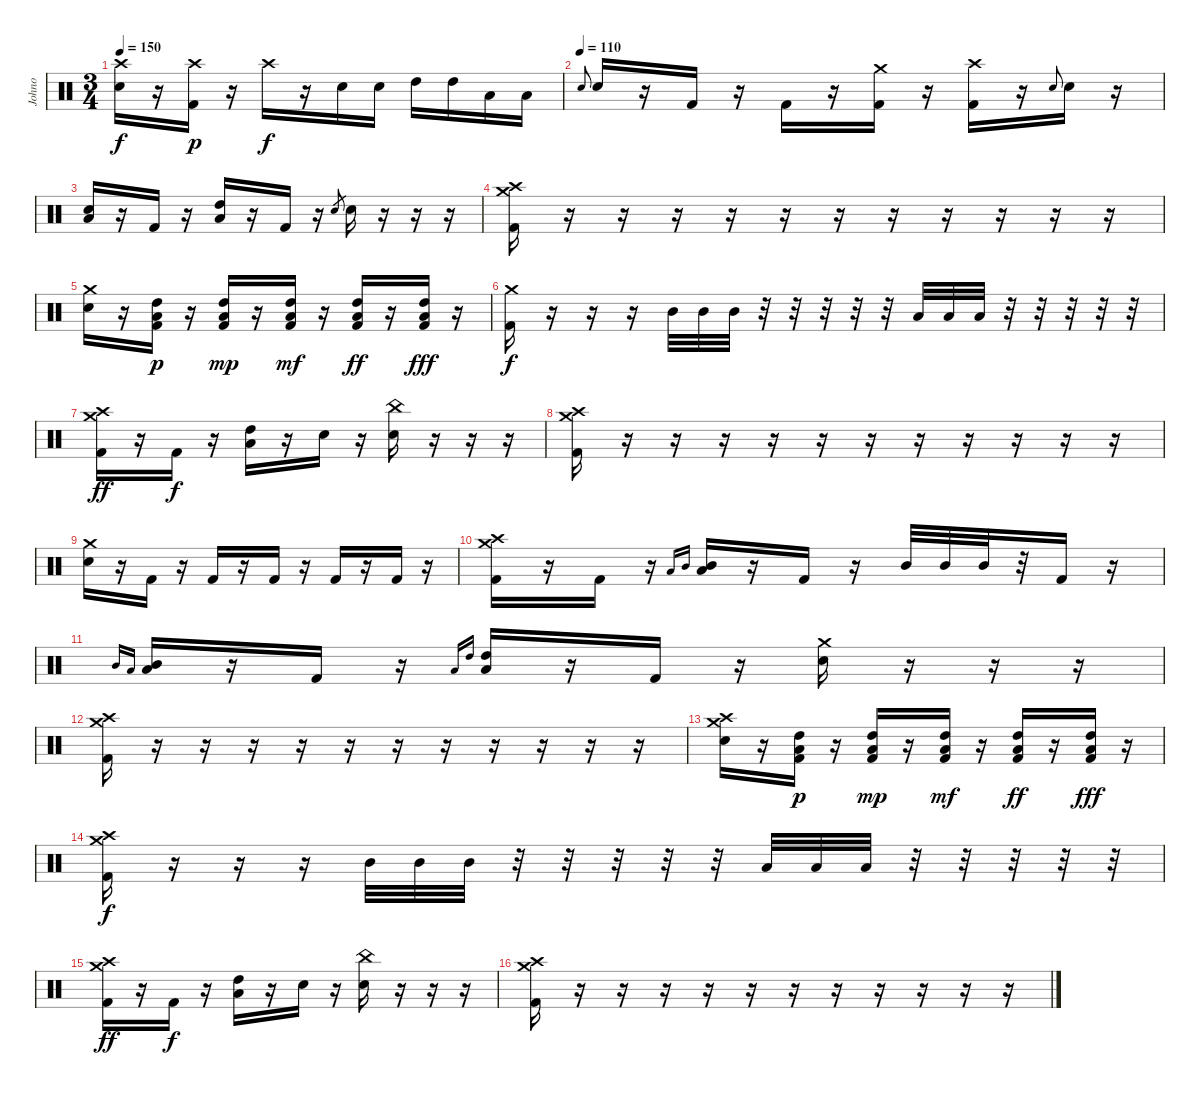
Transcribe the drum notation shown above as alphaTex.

\track ("Johno" "Johno") {instrument percussion}
\staff {score}
\articulation defaults
\ts (3 4)
\tempo 150
\clef neutral
\ks c
("Crash high (hit)" "Electric Snare (hit)").16{dy f} r.16 ("Crash high (hit)" "Kick (hit) 2").16{dy p} r.16 "Crash high (hit)".16{dy f} r.16 "Electric Snare (hit)".16 "Electric Snare (hit)".16 "High Tom (hit)".16 "High Tom (hit)".16 "Low Floor Tom (hit)".16 "Low Floor Tom (hit)".16 |
\tempo (110)
"Electric Snare (hit)".8{gr onbeat} "Electric Snare (hit)".16 r.16 "Kick (hit) 2".16 r.16 "Kick (hit) 2".16 r.16 ("Crash medium (hit)" "Kick (hit) 2").16 r.16 ("Crash high (hit)" "Kick (hit) 2").16 r.16 "Electric Snare (hit)".8{gr onbeat} "Electric Snare (hit)".16 r.16 |
("Low Floor Tom (hit)" "Electric Snare (hit)").16 r.16 "Kick (hit) 2".16 r.16 ("High Tom (hit)" "Low Floor Tom (hit)").16 r.16 "Kick (hit) 2".16 r.16 "Electric Snare (hit)".8{gr} "Electric Snare (hit)".16 r.16 r.16 r.16 |
("Crash medium (hit)" "Crash high (hit)" "Kick (hit) 2").16 r.16 r.16 r.16 r.16 r.16 r.16 r.16 r.16 r.16 r.16 r.16 |
("Crash medium (hit)" "Electric Snare (hit)").16 r.16 ("High Tom (hit)" "Low Floor Tom (hit)" "Kick (hit) 2").16{dy p} r.16 ("High Tom (hit)" "Low Floor Tom (hit)" "Kick (hit) 2").16{dy mp} r.16 ("High Tom (hit)" "Low Floor Tom (hit)" "Kick (hit) 2").16{dy mf} r.16 ("High Tom (hit)" "Low Floor Tom (hit)" "Kick (hit) 2").16{dy ff} r.16 ("High Tom (hit)" "Low Floor Tom (hit)" "Kick (hit) 2").16{dy fff} r.16 |
("Crash medium (hit)" "Kick (hit) 2").16{dy f} r.16 r.16 r.16 "Mid Tom (hit)".32 "Mid Tom (hit)".32 "Mid Tom (hit)".32 r.32 r.32 r.32 r.32 r.32 "Low Floor Tom (hit)".32 "Low Floor Tom (hit)".32 "Low Floor Tom (hit)".32 r.32 r.32 r.32 r.32 r.32 |
("Crash high (hit)" "Crash medium (hit)" "Kick (hit) 2").16{dy ff} r.16 "Kick (hit) 2".16{dy f} r.16 ("Low Floor Tom (hit)" "High Tom (hit)").16 r.16 "Electric Snare (hit)".16 r.16 ("China (hit)" "Electric Snare (hit)").16 r.16 r.16 r.16 |
("Crash high (hit)" "Crash medium (hit)" "Kick (hit) 2").16 r.16 r.16 r.16 r.16 r.16 r.16 r.16 r.16 r.16 r.16 r.16 |
("Crash medium (hit)" "Electric Snare (hit)").16 r.16 "Kick (hit) 2".16 r.16 "Kick (hit) 2".16 r.16 "Kick (hit) 2".16 r.16 "Kick (hit) 2".16 r.16 "Kick (hit) 2".16 r.16 |
("Crash high (hit)" "Crash medium (hit)" "Kick (hit) 2").16 r.16 "Kick (hit) 2".16 r.16 "Low Floor Tom (hit)".16{gr onbeat} "Mid Tom (hit)".16{gr onbeat} ("Low Floor Tom (hit)" "Mid Tom (hit)").16 r.16 "Kick (hit) 2".16 r.16 "Mid Tom (hit)".32 "Mid Tom (hit)".32 "Mid Tom (hit)".32 r.32 "Kick (hit) 2".16 r.16 |
"Mid Tom (hit)".16{gr onbeat} "Low Tom (hit)".16{gr onbeat} ("Mid Tom (hit)" "Low Floor Tom (hit)").16 r.16 "Kick (hit) 2".16 r.16 "Low Floor Tom (hit)".16{gr onbeat} "High Tom (hit)".16{gr onbeat} ("Low Floor Tom (hit)" "High Tom (hit)").16 r.16 "Kick (hit) 2".16 r.16 ("Crash medium (hit)" "Electric Snare (hit)").16 r.16 r.16 r.16 |
("Crash medium (hit)" "Crash high (hit)" "Kick (hit) 2").16 r.16 r.16 r.16 r.16 r.16 r.16 r.16 r.16 r.16 r.16 r.16 |
("Crash high (hit)" "Crash medium (hit)" "Electric Snare (hit)").16 r.16 ("High Tom (hit)" "Low Floor Tom (hit)" "Kick (hit) 2").16{dy p} r.16 ("High Tom (hit)" "Low Floor Tom (hit)" "Kick (hit) 2").16{dy mp} r.16 ("High Tom (hit)" "Low Floor Tom (hit)" "Kick (hit) 2").16{dy mf} r.16 ("High Tom (hit)" "Low Floor Tom (hit)" "Kick (hit) 2").16{dy ff} r.16 ("High Tom (hit)" "Low Floor Tom (hit)" "Kick (hit) 2").16{dy fff} r.16 |
("Crash high (hit)" "Crash medium (hit)" "Kick (hit) 2").16{dy f} r.16 r.16 r.16 "Mid Tom (hit)".32 "Mid Tom (hit)".32 "Mid Tom (hit)".32 r.32 r.32 r.32 r.32 r.32 "Low Floor Tom (hit)".32 "Low Floor Tom (hit)".32 "Low Floor Tom (hit)".32 r.32 r.32 r.32 r.32 r.32 |
("Crash high (hit)" "Crash medium (hit)" "Kick (hit) 2").16{dy ff} r.16 "Kick (hit) 2".16{dy f} r.16 ("Low Floor Tom (hit)" "High Tom (hit)").16 r.16 "Electric Snare (hit)".16 r.16 ("China (hit)" "Electric Snare (hit)").16 r.16 r.16 r.16 |
("Crash high (hit)" "Crash medium (hit)" "Kick (hit) 2").16 r.16 r.16 r.16 r.16 r.16 r.16 r.16 r.16 r.16 r.16 r.16
